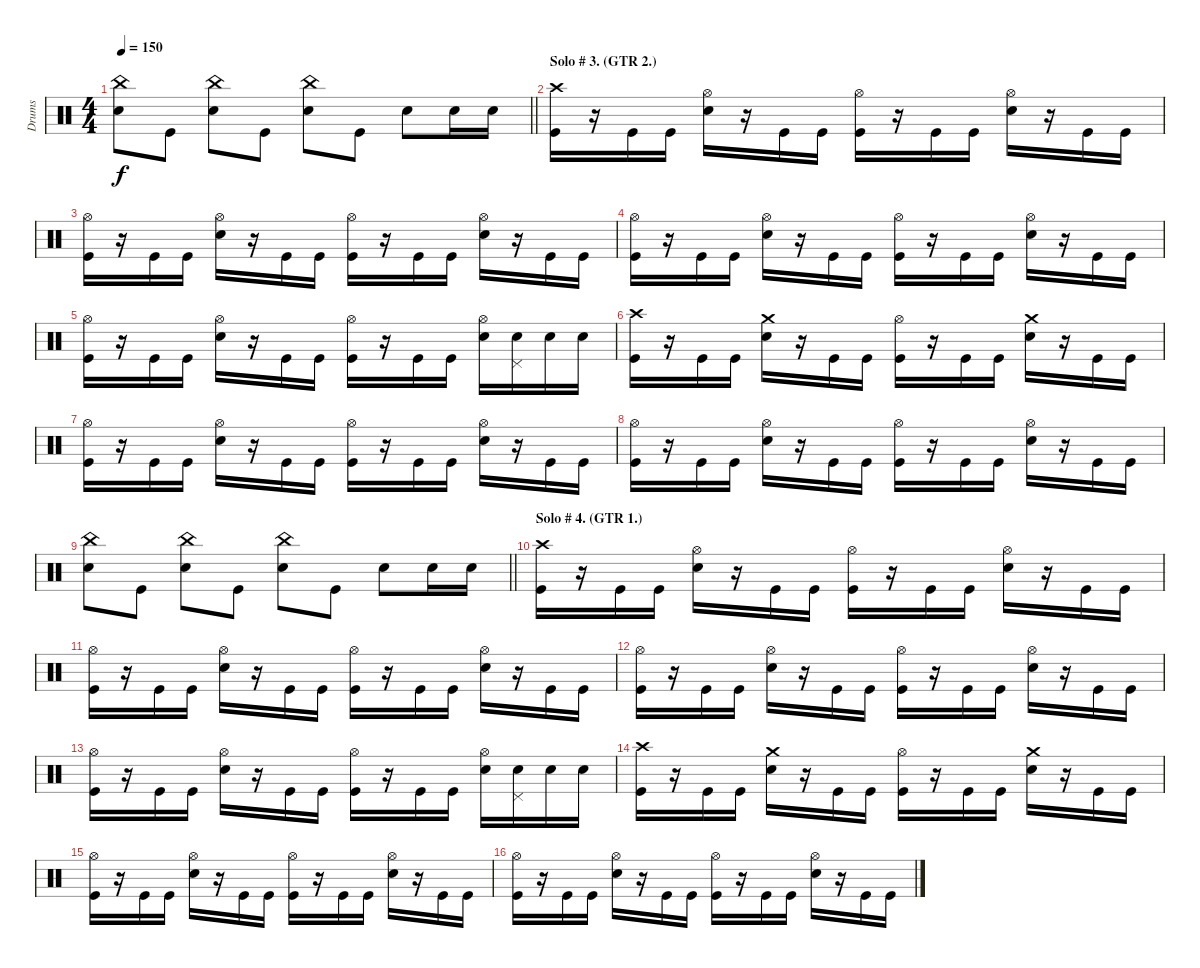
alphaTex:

\track ("Drums" "Drums") {instrument percussion}
\staff {score}
\articulation defaults
\ts (4 4)
\tempo 150
\clef neutral
\barLineRight lightlight
\ks c
("China (hit)" "Electric Snare (hit)").8{dy f} "Kick (hit)".8 ("China (hit)" "Electric Snare (hit)").8 "Kick (hit)".8 ("China (hit)" "Electric Snare (hit)").8 "Kick (hit)".8 "Electric Snare (hit)".8 "Electric Snare (hit)".16 "Electric Snare (hit)".16 |
\section ("" "Solo # 3. (GTR 2.)")
("Crash high (hit)" "Kick (hit)").16 r.16 "Kick (hit)".16 "Kick (hit)".16 ("Hi-Hat (open)" "Electric Snare (hit)").16 r.16 "Kick (hit)".16 "Kick (hit)".16 ("Hi-Hat (open)" "Kick (hit)").16 r.16 "Kick (hit)".16 "Kick (hit)".16 ("Hi-Hat (open)" "Electric Snare (hit)").16 r.16 "Kick (hit)".16 "Kick (hit)".16 |
("Hi-Hat (open)" "Kick (hit)").16 r.16 "Kick (hit)".16 "Kick (hit)".16 ("Hi-Hat (open)" "Electric Snare (hit)").16 r.16 "Kick (hit)".16 "Kick (hit)".16 ("Hi-Hat (open)" "Kick (hit)").16 r.16 "Kick (hit)".16 "Kick (hit)".16 ("Hi-Hat (open)" "Electric Snare (hit)").16 r.16 "Kick (hit)".16 "Kick (hit)".16 |
("Hi-Hat (open)" "Kick (hit)").16 r.16 "Kick (hit)".16 "Kick (hit)".16 ("Hi-Hat (open)" "Electric Snare (hit)").16 r.16 "Kick (hit)".16 "Kick (hit)".16 ("Hi-Hat (open)" "Kick (hit)").16 r.16 "Kick (hit)".16 "Kick (hit)".16 ("Hi-Hat (open)" "Electric Snare (hit)").16 r.16 "Kick (hit)".16 "Kick (hit)".16 |
("Hi-Hat (open)" "Kick (hit)").16 r.16 "Kick (hit)".16 "Kick (hit)".16 ("Hi-Hat (open)" "Electric Snare (hit)").16 r.16 "Kick (hit)".16 "Kick (hit)".16 ("Hi-Hat (open)" "Kick (hit)").16 r.16 "Kick (hit)".16 "Kick (hit)".16 ("Hi-Hat (open)" "Electric Snare (hit)").16 ("Pedal Hi-Hat (hit)" "Electric Snare (hit)").16 "Electric Snare (hit)".16 "Electric Snare (hit)".16 |
("Crash high (hit)" "Kick (hit)").16 r.16 "Kick (hit)".16 "Kick (hit)".16 ("Crash medium (hit)" "Electric Snare (hit)").16 r.16 "Kick (hit)".16 "Kick (hit)".16 ("Hi-Hat (open)" "Kick (hit)").16 r.16 "Kick (hit)".16 "Kick (hit)".16 ("Crash medium (hit)" "Electric Snare (hit)").16 r.16 "Kick (hit)".16 "Kick (hit)".16 |
("Hi-Hat (open)" "Kick (hit)").16 r.16 "Kick (hit)".16 "Kick (hit)".16 ("Hi-Hat (open)" "Electric Snare (hit)").16 r.16 "Kick (hit)".16 "Kick (hit)".16 ("Hi-Hat (open)" "Kick (hit)").16 r.16 "Kick (hit)".16 "Kick (hit)".16 ("Hi-Hat (open)" "Electric Snare (hit)").16 r.16 "Kick (hit)".16 "Kick (hit)".16 |
("Hi-Hat (open)" "Kick (hit)").16 r.16 "Kick (hit)".16 "Kick (hit)".16 ("Hi-Hat (open)" "Electric Snare (hit)").16 r.16 "Kick (hit)".16 "Kick (hit)".16 ("Hi-Hat (open)" "Kick (hit)").16 r.16 "Kick (hit)".16 "Kick (hit)".16 ("Hi-Hat (open)" "Electric Snare (hit)").16 r.16 "Kick (hit)".16 "Kick (hit)".16 |
\barLineRight lightlight
("China (hit)" "Electric Snare (hit)").8 "Kick (hit)".8 ("China (hit)" "Electric Snare (hit)").8 "Kick (hit)".8 ("China (hit)" "Electric Snare (hit)").8 "Kick (hit)".8 "Electric Snare (hit)".8 "Electric Snare (hit)".16 "Electric Snare (hit)".16 |
\section ("" "Solo # 4. (GTR 1.)")
("Crash high (hit)" "Kick (hit)").16 r.16 "Kick (hit)".16 "Kick (hit)".16 ("Hi-Hat (open)" "Electric Snare (hit)").16 r.16 "Kick (hit)".16 "Kick (hit)".16 ("Hi-Hat (open)" "Kick (hit)").16 r.16 "Kick (hit)".16 "Kick (hit)".16 ("Hi-Hat (open)" "Electric Snare (hit)").16 r.16 "Kick (hit)".16 "Kick (hit)".16 |
("Hi-Hat (open)" "Kick (hit)").16 r.16 "Kick (hit)".16 "Kick (hit)".16 ("Hi-Hat (open)" "Electric Snare (hit)").16 r.16 "Kick (hit)".16 "Kick (hit)".16 ("Hi-Hat (open)" "Kick (hit)").16 r.16 "Kick (hit)".16 "Kick (hit)".16 ("Hi-Hat (open)" "Electric Snare (hit)").16 r.16 "Kick (hit)".16 "Kick (hit)".16 |
("Hi-Hat (open)" "Kick (hit)").16 r.16 "Kick (hit)".16 "Kick (hit)".16 ("Hi-Hat (open)" "Electric Snare (hit)").16 r.16 "Kick (hit)".16 "Kick (hit)".16 ("Hi-Hat (open)" "Kick (hit)").16 r.16 "Kick (hit)".16 "Kick (hit)".16 ("Hi-Hat (open)" "Electric Snare (hit)").16 r.16 "Kick (hit)".16 "Kick (hit)".16 |
("Hi-Hat (open)" "Kick (hit)").16 r.16 "Kick (hit)".16 "Kick (hit)".16 ("Hi-Hat (open)" "Electric Snare (hit)").16 r.16 "Kick (hit)".16 "Kick (hit)".16 ("Hi-Hat (open)" "Kick (hit)").16 r.16 "Kick (hit)".16 "Kick (hit)".16 ("Hi-Hat (open)" "Electric Snare (hit)").16 ("Pedal Hi-Hat (hit)" "Electric Snare (hit)").16 "Electric Snare (hit)".16 "Electric Snare (hit)".16 |
("Crash high (hit)" "Kick (hit)").16 r.16 "Kick (hit)".16 "Kick (hit)".16 ("Crash medium (hit)" "Electric Snare (hit)").16 r.16 "Kick (hit)".16 "Kick (hit)".16 ("Hi-Hat (open)" "Kick (hit)").16 r.16 "Kick (hit)".16 "Kick (hit)".16 ("Crash medium (hit)" "Electric Snare (hit)").16 r.16 "Kick (hit)".16 "Kick (hit)".16 |
("Hi-Hat (open)" "Kick (hit)").16 r.16 "Kick (hit)".16 "Kick (hit)".16 ("Hi-Hat (open)" "Electric Snare (hit)").16 r.16 "Kick (hit)".16 "Kick (hit)".16 ("Hi-Hat (open)" "Kick (hit)").16 r.16 "Kick (hit)".16 "Kick (hit)".16 ("Hi-Hat (open)" "Electric Snare (hit)").16 r.16 "Kick (hit)".16 "Kick (hit)".16 |
("Hi-Hat (open)" "Kick (hit)").16 r.16 "Kick (hit)".16 "Kick (hit)".16 ("Hi-Hat (open)" "Electric Snare (hit)").16 r.16 "Kick (hit)".16 "Kick (hit)".16 ("Hi-Hat (open)" "Kick (hit)").16 r.16 "Kick (hit)".16 "Kick (hit)".16 ("Hi-Hat (open)" "Electric Snare (hit)").16 r.16 "Kick (hit)".16 "Kick (hit)".16
